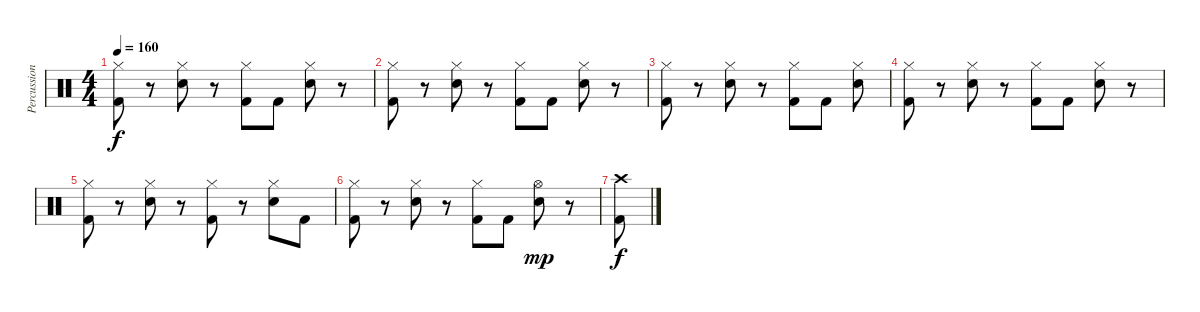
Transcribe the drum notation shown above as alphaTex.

\track ("Percussion" "Percussion") {instrument percussion}
\staff {score}
\articulation defaults
\ts (4 4)
\tempo 160
\clef neutral
\ks c
("Hi-Hat (closed)" "Kick (hit) 2").8{dy f} r.8 ("Hi-Hat (closed)" "Snare (hit) 2").8 r.8 ("Hi-Hat (closed)" "Kick (hit) 2").8 "Kick (hit) 2".8 ("Hi-Hat (closed)" "Snare (hit) 2").8 r.8 |
("Hi-Hat (closed)" "Kick (hit) 2").8 r.8 ("Hi-Hat (closed)" "Snare (hit) 2").8 r.8 ("Hi-Hat (closed)" "Kick (hit) 2").8 "Kick (hit) 2".8 ("Hi-Hat (closed)" "Snare (hit) 2").8 r.8 |
("Hi-Hat (closed)" "Kick (hit) 2").8 r.8 ("Hi-Hat (closed)" "Snare (hit) 2").8 r.8 ("Hi-Hat (closed)" "Kick (hit) 2").8 "Kick (hit) 2".8 ("Hi-Hat (closed)" "Snare (hit) 2").8 |
("Hi-Hat (closed)" "Kick (hit) 2").8 r.8 ("Hi-Hat (closed)" "Snare (hit) 2").8 r.8 ("Hi-Hat (closed)" "Kick (hit) 2").8 "Kick (hit) 2".8 ("Hi-Hat (closed)" "Snare (hit) 2").8 r.8 |
("Hi-Hat (closed)" "Kick (hit) 2").8 r.8 ("Hi-Hat (closed)" "Snare (hit) 2").8 r.8 ("Hi-Hat (closed)" "Kick (hit) 2").8 r.8 ("Hi-Hat (closed)" "Snare (hit) 2").8 "Kick (hit) 2".8 |
("Hi-Hat (closed)" "Kick (hit) 2").8 r.8 ("Hi-Hat (closed)" "Snare (hit) 2").8 r.8 ("Hi-Hat (closed)" "Kick (hit) 2").8 "Kick (hit) 2".8 ("Hi-Hat (open)" "Snare (hit) 2").8{dy mp} r.8 |
("Crash high (hit)" "Kick (hit) 2").8{dy f}
